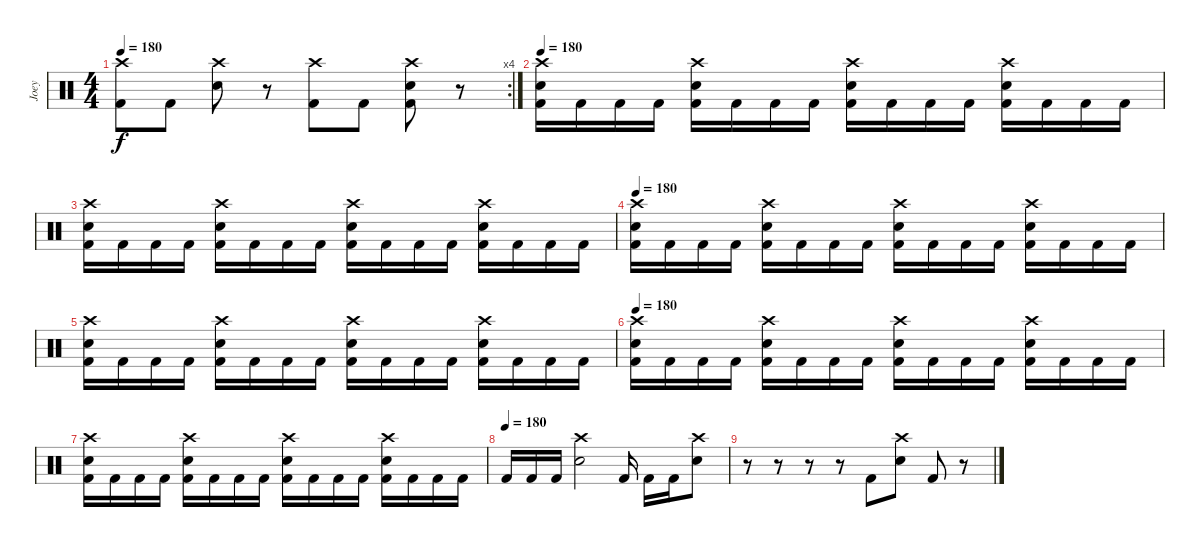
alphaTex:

\track ("Joey" "Joey") {instrument percussion}
\staff {score}
\articulation defaults
\rc 4
\ts (4 4)
\tempo 180
\clef neutral
\ks c
("Crash high (hit)" "Kick (hit) 2").8{dy f} "Kick (hit) 2".8 ("Crash high (hit)" "Electric Snare (hit)").8 r.8 ("Crash high (hit)" "Kick (hit) 2").8 "Kick (hit) 2".8 ("Crash high (hit)" "Electric Snare (hit)" "Kick (hit) 2").8 r.8 |
\tempo 180
("Crash high (hit)" "Electric Snare (hit)" "Kick (hit) 2").16 "Kick (hit) 2".16 "Kick (hit) 2".16 "Kick (hit) 2".16 ("Crash high (hit)" "Electric Snare (hit)" "Kick (hit) 2").16 "Kick (hit) 2".16 "Kick (hit) 2".16 "Kick (hit) 2".16 ("Crash high (hit)" "Electric Snare (hit)" "Kick (hit) 2").16 "Kick (hit) 2".16 "Kick (hit) 2".16 "Kick (hit) 2".16 ("Crash high (hit)" "Electric Snare (hit)" "Kick (hit) 2").16 "Kick (hit) 2".16 "Kick (hit) 2".16 "Kick (hit) 2".16 |
("Crash high (hit)" "Electric Snare (hit)" "Kick (hit) 2").16 "Kick (hit) 2".16 "Kick (hit) 2".16 "Kick (hit) 2".16 ("Crash high (hit)" "Electric Snare (hit)" "Kick (hit) 2").16 "Kick (hit) 2".16 "Kick (hit) 2".16 "Kick (hit) 2".16 ("Crash high (hit)" "Electric Snare (hit)" "Kick (hit) 2").16 "Kick (hit) 2".16 "Kick (hit) 2".16 "Kick (hit) 2".16 ("Crash high (hit)" "Electric Snare (hit)" "Kick (hit) 2").16 "Kick (hit) 2".16 "Kick (hit) 2".16 "Kick (hit) 2".16 |
\tempo 180
("Crash high (hit)" "Electric Snare (hit)" "Kick (hit) 2").16 "Kick (hit) 2".16 "Kick (hit) 2".16 "Kick (hit) 2".16 ("Crash high (hit)" "Electric Snare (hit)" "Kick (hit) 2").16 "Kick (hit) 2".16 "Kick (hit) 2".16 "Kick (hit) 2".16 ("Crash high (hit)" "Electric Snare (hit)" "Kick (hit) 2").16 "Kick (hit) 2".16 "Kick (hit) 2".16 "Kick (hit) 2".16 ("Crash high (hit)" "Electric Snare (hit)" "Kick (hit) 2").16 "Kick (hit) 2".16 "Kick (hit) 2".16 "Kick (hit) 2".16 |
("Crash high (hit)" "Electric Snare (hit)" "Kick (hit) 2").16 "Kick (hit) 2".16 "Kick (hit) 2".16 "Kick (hit) 2".16 ("Crash high (hit)" "Electric Snare (hit)" "Kick (hit) 2").16 "Kick (hit) 2".16 "Kick (hit) 2".16 "Kick (hit) 2".16 ("Crash high (hit)" "Electric Snare (hit)" "Kick (hit) 2").16 "Kick (hit) 2".16 "Kick (hit) 2".16 "Kick (hit) 2".16 ("Crash high (hit)" "Electric Snare (hit)" "Kick (hit) 2").16 "Kick (hit) 2".16 "Kick (hit) 2".16 "Kick (hit) 2".16 |
\tempo 180
("Crash high (hit)" "Electric Snare (hit)" "Kick (hit) 2").16 "Kick (hit) 2".16 "Kick (hit) 2".16 "Kick (hit) 2".16 ("Crash high (hit)" "Electric Snare (hit)" "Kick (hit) 2").16 "Kick (hit) 2".16 "Kick (hit) 2".16 "Kick (hit) 2".16 ("Crash high (hit)" "Electric Snare (hit)" "Kick (hit) 2").16 "Kick (hit) 2".16 "Kick (hit) 2".16 "Kick (hit) 2".16 ("Crash high (hit)" "Electric Snare (hit)" "Kick (hit) 2").16 "Kick (hit) 2".16 "Kick (hit) 2".16 "Kick (hit) 2".16 |
("Crash high (hit)" "Electric Snare (hit)" "Kick (hit) 2").16 "Kick (hit) 2".16 "Kick (hit) 2".16 "Kick (hit) 2".16 ("Crash high (hit)" "Electric Snare (hit)" "Kick (hit) 2").16 "Kick (hit) 2".16 "Kick (hit) 2".16 "Kick (hit) 2".16 ("Crash high (hit)" "Electric Snare (hit)" "Kick (hit) 2").16 "Kick (hit) 2".16 "Kick (hit) 2".16 "Kick (hit) 2".16 ("Crash high (hit)" "Electric Snare (hit)" "Kick (hit) 2").16 "Kick (hit) 2".16 "Kick (hit) 2".16 "Kick (hit) 2".16 |
\tempo (180)
"Kick (hit) 2".16 "Kick (hit) 2".16 "Kick (hit) 2".16 ("Crash high (hit)" "Electric Snare (hit)").2 "Kick (hit) 2".16 "Kick (hit) 2".16 "Kick (hit) 2".16 ("Crash high (hit)" "Electric Snare (hit)").8 |
r.8 r.8 r.8 r.8 "Kick (hit) 2".8 ("Crash high (hit)" "Electric Snare (hit)").8 "Kick (hit) 2".8 r.8
